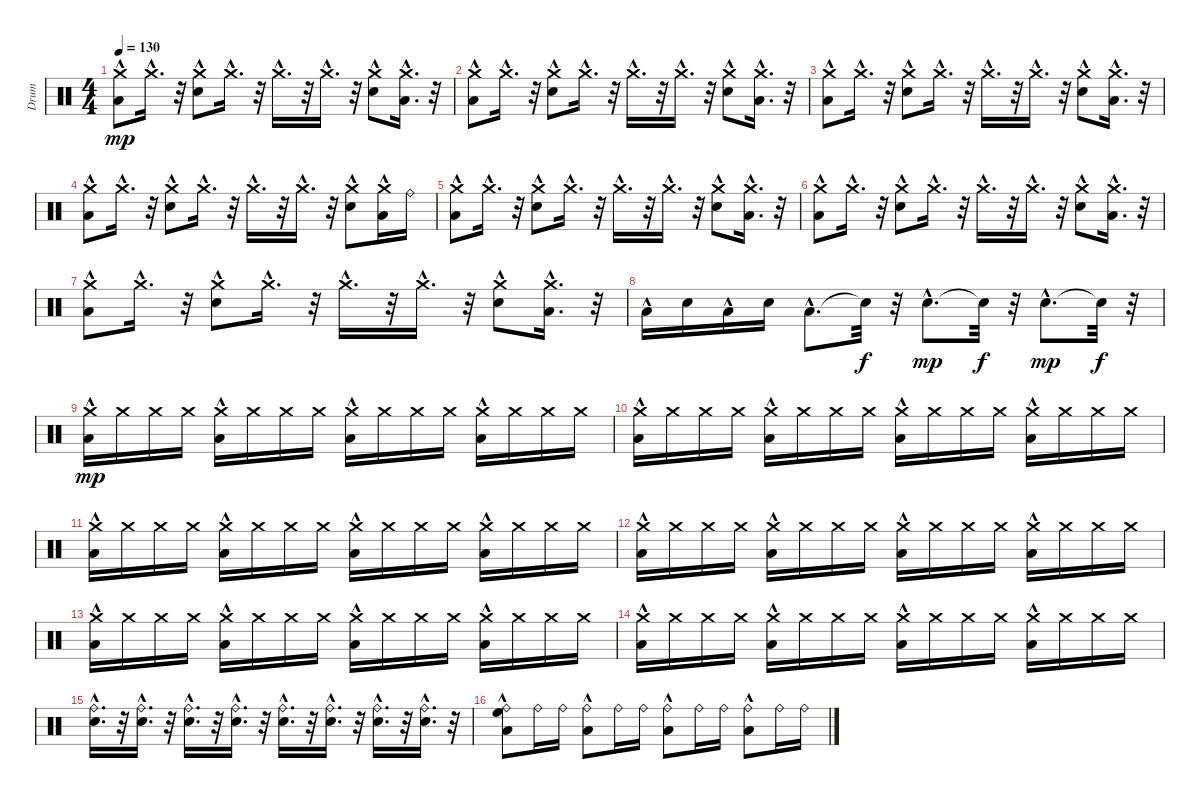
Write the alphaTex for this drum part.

\track ("Drum" "Drum") {instrument percussion}
\staff {score}
\articulation defaults
\ts (4 4)
\tempo 130
\clef neutral
\ks c
("Low Tom (hit)"{hac} "Crash medium (hit)"{hac}).8{dy mp} "Crash medium (hit)"{hac}.16{d} r.32 ("Snare (hit) 2"{hac} "Crash medium (hit)"{hac}).8 "Crash medium (hit)"{hac}.16{d} r.32 "Crash medium (hit)"{hac}.16{d} r.32 "Crash medium (hit)"{hac}.16{d} r.32 ("Snare (hit) 2"{hac} "Crash medium (hit)"{hac}).8 ("Low Tom (hit)"{hac} "Crash medium (hit)"{hac}).16{d} r.32 |
("Low Tom (hit)"{hac} "Crash medium (hit)"{hac}).8 "Crash medium (hit)"{hac}.16{d} r.32 ("Snare (hit) 2"{hac} "Crash medium (hit)"{hac}).8 "Crash medium (hit)"{hac}.16{d} r.32 "Crash medium (hit)"{hac}.16{d} r.32 "Crash medium (hit)"{hac}.16{d} r.32 ("Snare (hit) 2"{hac} "Crash medium (hit)"{hac}).8 ("Low Tom (hit)"{hac} "Crash medium (hit)"{hac}).16{d} r.32 |
("Low Tom (hit)"{hac} "Crash medium (hit)"{hac}).8 "Crash medium (hit)"{hac}.16{d} r.32 ("Snare (hit) 2"{hac} "Crash medium (hit)"{hac}).8 "Crash medium (hit)"{hac}.16{d} r.32 "Crash medium (hit)"{hac}.16{d} r.32 "Crash medium (hit)"{hac}.16{d} r.32 ("Snare (hit) 2"{hac} "Crash medium (hit)"{hac}).8 ("Low Tom (hit)"{hac} "Crash medium (hit)"{hac}).16{d} r.32 |
("Low Tom (hit)"{hac} "Crash medium (hit)"{hac}).8 "Crash medium (hit)"{hac}.16{d} r.32 ("Snare (hit) 2"{hac} "Crash medium (hit)"{hac}).8 "Crash medium (hit)"{hac}.16{d} r.32 "Crash medium (hit)"{hac}.16{d} r.32 "Crash medium (hit)"{hac}.16{d} r.32 ("Snare (hit) 2"{hac} "Crash medium (hit)"{hac}).8 ("Low Tom (hit)"{hac} "Crash medium (hit)").16 "Ride (bell)".16 |
("Low Tom (hit)"{hac} "Crash medium (hit)"{hac}).8 "Crash medium (hit)"{hac}.16{d} r.32 ("Snare (hit) 2"{hac} "Crash medium (hit)"{hac}).8 "Crash medium (hit)"{hac}.16{d} r.32 "Crash medium (hit)"{hac}.16{d} r.32 "Crash medium (hit)"{hac}.16{d} r.32 ("Snare (hit) 2"{hac} "Crash medium (hit)"{hac}).8 ("Low Tom (hit)"{hac} "Crash medium (hit)"{hac}).16{d} r.32 |
("Low Tom (hit)"{hac} "Crash medium (hit)"{hac}).8 "Crash medium (hit)"{hac}.16{d} r.32 ("Snare (hit) 2"{hac} "Crash medium (hit)"{hac}).8 "Crash medium (hit)"{hac}.16{d} r.32 "Crash medium (hit)"{hac}.16{d} r.32 "Crash medium (hit)"{hac}.16{d} r.32 ("Snare (hit) 2"{hac} "Crash medium (hit)"{hac}).8 ("Low Tom (hit)"{hac} "Crash medium (hit)"{hac}).16{d} r.32 |
("Low Tom (hit)"{hac} "Crash medium (hit)"{hac}).8 "Crash medium (hit)"{hac}.16{d} r.32 ("Snare (hit) 2"{hac} "Crash medium (hit)"{hac}).8 "Crash medium (hit)"{hac}.16{d} r.32 "Crash medium (hit)"{hac}.16{d} r.32 "Crash medium (hit)"{hac}.16{d} r.32 ("Snare (hit) 2"{hac} "Crash medium (hit)"{hac}).8 ("Low Tom (hit)"{hac} "Crash medium (hit)"{hac}).16{d} r.32 |
"Low Tom (hit)"{hac}.16 "Snare (hit) 2".16 "Low Tom (hit)"{hac}.16 "Snare (hit) 2".16 "Low Tom (hit)"{hac}.8{d} "Snare (hit)"{t}.32{dy f} r.32 "Snare (hit) 2"{hac}.8{d dy mp} "Snare (hit)"{t}.32{dy f} r.32 "Snare (hit) 2"{hac}.8{d dy mp} "Snare (hit)"{t}.32{dy f} r.32 |
("Low Tom (hit)"{hac} "Crash medium (hit)").16{dy mp} "Crash medium (hit)".16 "Crash medium (hit)".16 "Crash medium (hit)".16 ("Low Tom (hit)"{hac} "Crash medium (hit)").16 "Crash medium (hit)".16 "Crash medium (hit)".16 "Crash medium (hit)".16 ("Low Tom (hit)"{hac} "Crash medium (hit)").16 "Crash medium (hit)".16 "Crash medium (hit)".16 "Crash medium (hit)".16 ("Low Tom (hit)"{hac} "Crash medium (hit)").16 "Crash medium (hit)".16 "Crash medium (hit)".16 "Crash medium (hit)".16 |
("Low Tom (hit)"{hac} "Crash medium (hit)").16 "Crash medium (hit)".16 "Crash medium (hit)".16 "Crash medium (hit)".16 ("Low Tom (hit)"{hac} "Crash medium (hit)").16 "Crash medium (hit)".16 "Crash medium (hit)".16 "Crash medium (hit)".16 ("Low Tom (hit)"{hac} "Crash medium (hit)").16 "Crash medium (hit)".16 "Crash medium (hit)".16 "Crash medium (hit)".16 ("Low Tom (hit)"{hac} "Crash medium (hit)").16 "Crash medium (hit)".16 "Crash medium (hit)".16 "Crash medium (hit)".16 |
("Low Tom (hit)"{hac} "Crash medium (hit)").16 "Crash medium (hit)".16 "Crash medium (hit)".16 "Crash medium (hit)".16 ("Low Tom (hit)"{hac} "Crash medium (hit)").16 "Crash medium (hit)".16 "Crash medium (hit)".16 "Crash medium (hit)".16 ("Low Tom (hit)"{hac} "Crash medium (hit)").16 "Crash medium (hit)".16 "Crash medium (hit)".16 "Crash medium (hit)".16 ("Low Tom (hit)"{hac} "Crash medium (hit)").16 "Crash medium (hit)".16 "Crash medium (hit)".16 "Crash medium (hit)".16 |
("Low Tom (hit)"{hac} "Crash medium (hit)").16 "Crash medium (hit)".16 "Crash medium (hit)".16 "Crash medium (hit)".16 ("Low Tom (hit)"{hac} "Crash medium (hit)").16 "Crash medium (hit)".16 "Crash medium (hit)".16 "Crash medium (hit)".16 ("Low Tom (hit)"{hac} "Crash medium (hit)").16 "Crash medium (hit)".16 "Crash medium (hit)".16 "Crash medium (hit)".16 ("Low Tom (hit)"{hac} "Crash medium (hit)").16 "Crash medium (hit)".16 "Crash medium (hit)".16 "Crash medium (hit)".16 |
("Low Tom (hit)"{hac} "Crash medium (hit)").16 "Crash medium (hit)".16 "Crash medium (hit)".16 "Crash medium (hit)".16 ("Low Tom (hit)"{hac} "Crash medium (hit)").16 "Crash medium (hit)".16 "Crash medium (hit)".16 "Crash medium (hit)".16 ("Low Tom (hit)"{hac} "Crash medium (hit)").16 "Crash medium (hit)".16 "Crash medium (hit)".16 "Crash medium (hit)".16 ("Low Tom (hit)"{hac} "Crash medium (hit)").16 "Crash medium (hit)".16 "Crash medium (hit)".16 "Crash medium (hit)".16 |
("Low Tom (hit)"{hac} "Crash medium (hit)").16 "Crash medium (hit)".16 "Crash medium (hit)".16 "Crash medium (hit)".16 ("Low Tom (hit)"{hac} "Crash medium (hit)").16 "Crash medium (hit)".16 "Crash medium (hit)".16 "Crash medium (hit)".16 ("Low Tom (hit)"{hac} "Crash medium (hit)").16 "Crash medium (hit)".16 "Crash medium (hit)".16 "Crash medium (hit)".16 ("Low Tom (hit)"{hac} "Crash medium (hit)").16 "Crash medium (hit)".16 "Crash medium (hit)".16 "Crash medium (hit)".16 |
("Snare (hit) 2"{hac} "Ride (bell)"{hac}).16{d} r.32 ("Snare (hit) 2"{hac} "Ride (bell)"{hac}).16{d} r.32 ("Snare (hit) 2"{hac} "Ride (bell)"{hac}).16{d} r.32 ("Snare (hit) 2"{hac} "Ride (bell)"{hac}).16{d} r.32 ("Snare (hit) 2"{hac} "Ride (bell)"{hac}).16{d} r.32 ("Snare (hit) 2"{hac} "Ride (bell)"{hac}).16{d} r.32 ("Snare (hit) 2"{hac} "Ride (bell)"{hac}).16{d} r.32 ("Snare (hit) 2"{hac} "Ride (bell)"{hac}).16{d} r.32 |
("Low Tom (hit)"{hac} "High Floor Tom (hit)"{hac} "Ride (bell)"{hac}).8 "Ride (bell)".16 "Ride (bell)".16 ("Low Tom (hit)"{hac} "Ride (bell)"{hac}).8 "Ride (bell)".16 "Ride (bell)".16 ("Low Tom (hit)"{hac} "Ride (bell)"{hac}).8 "Ride (bell)".16 "Ride (bell)".16 ("Low Tom (hit)"{hac} "Ride (bell)"{hac}).8 "Ride (bell)".16 "Ride (bell)".16
